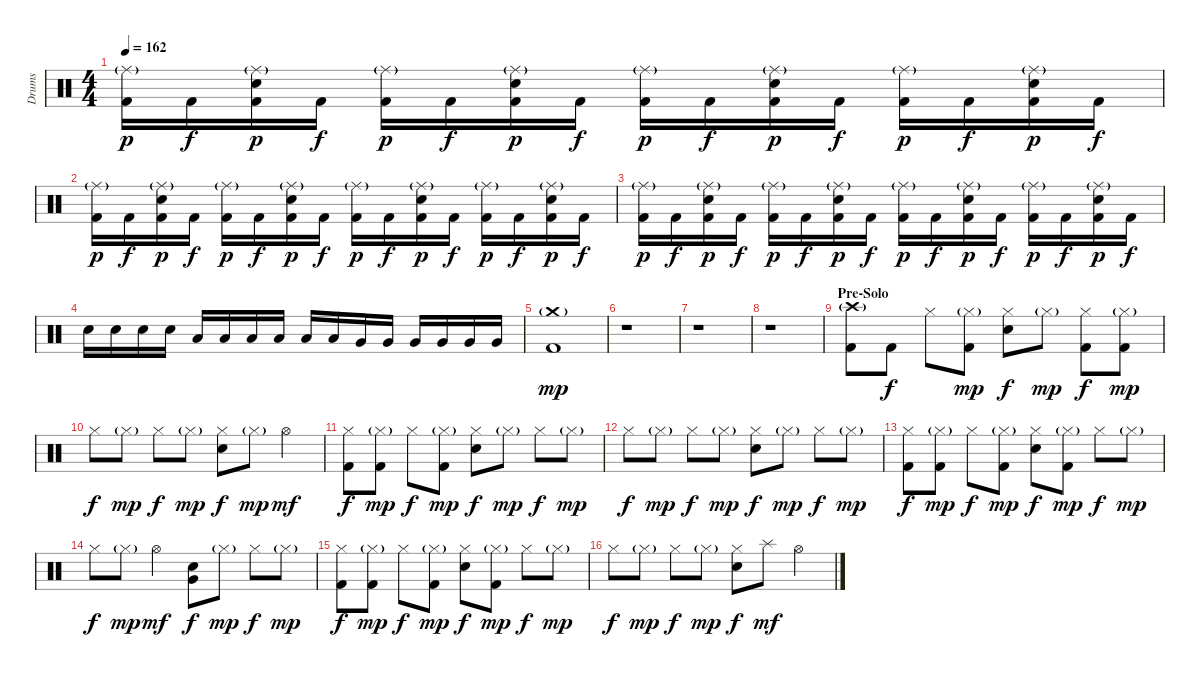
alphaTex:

\track ("Drums" "Drums") {instrument percussion}
\staff {score}
\articulation defaults
\ts (4 4)
\tempo 162
\clef neutral
\ks c
("Ride (middle)"{g} "Kick (hit) 2").16{dy p} "Kick (hit) 2".16{dy f} ("Ride (middle)"{g} "Snare (hit) 2" "Kick (hit) 2").16{dy p} "Kick (hit) 2".16{dy f} ("Ride (middle)"{g} "Kick (hit) 2").16{dy p} "Kick (hit) 2".16{dy f} ("Ride (middle)"{g} "Snare (hit) 2" "Kick (hit) 2").16{dy p} "Kick (hit) 2".16{dy f} ("Ride (middle)"{g} "Kick (hit) 2").16{dy p} "Kick (hit) 2".16{dy f} ("Ride (middle)"{g} "Snare (hit) 2" "Kick (hit) 2").16{dy p} "Kick (hit) 2".16{dy f} ("Ride (middle)"{g} "Kick (hit) 2").16{dy p} "Kick (hit) 2".16{dy f} ("Ride (middle)"{g} "Snare (hit) 2" "Kick (hit) 2").16{dy p} "Kick (hit) 2".16{dy f} |
("Ride (middle)"{g} "Kick (hit) 2").16{dy p} "Kick (hit) 2".16{dy f} ("Ride (middle)"{g} "Snare (hit) 2" "Kick (hit) 2").16{dy p} "Kick (hit) 2".16{dy f} ("Ride (middle)"{g} "Kick (hit) 2").16{dy p} "Kick (hit) 2".16{dy f} ("Ride (middle)"{g} "Snare (hit) 2" "Kick (hit) 2").16{dy p} "Kick (hit) 2".16{dy f} ("Ride (middle)"{g} "Kick (hit) 2").16{dy p} "Kick (hit) 2".16{dy f} ("Ride (middle)"{g} "Snare (hit) 2" "Kick (hit) 2").16{dy p} "Kick (hit) 2".16{dy f} ("Ride (middle)"{g} "Kick (hit) 2").16{dy p} "Kick (hit) 2".16{dy f} ("Ride (middle)"{g} "Snare (hit) 2" "Kick (hit) 2").16{dy p} "Kick (hit) 2".16{dy f} |
("Ride (middle)"{g} "Kick (hit) 2").16{dy p} "Kick (hit) 2".16{dy f} ("Ride (middle)"{g} "Snare (hit) 2" "Kick (hit) 2").16{dy p} "Kick (hit) 2".16{dy f} ("Ride (middle)"{g} "Kick (hit) 2").16{dy p} "Kick (hit) 2".16{dy f} ("Ride (middle)"{g} "Snare (hit) 2" "Kick (hit) 2").16{dy p} "Kick (hit) 2".16{dy f} ("Ride (middle)"{g} "Kick (hit) 2").16{dy p} "Kick (hit) 2".16{dy f} ("Ride (middle)"{g} "Snare (hit) 2" "Kick (hit) 2").16{dy p} "Kick (hit) 2".16{dy f} ("Ride (middle)"{g} "Kick (hit) 2").16{dy p} "Kick (hit) 2".16{dy f} ("Ride (middle)"{g} "Snare (hit) 2" "Kick (hit) 2").16{dy p} "Kick (hit) 2".16{dy f} |
"Snare (hit) 2".16 "Snare (hit) 2".16 "Snare (hit) 2".16 "Snare (hit) 2".16 "Low Tom (hit)".16 "Low Tom (hit)".16 "Low Tom (hit)".16 "Low Tom (hit)".16 "Low Tom (hit)".16 "Low Tom (hit)".16 "Very Low Tom (hit)".16 "Very Low Tom (hit)".16 "Very Low Tom (hit)".16 "Very Low Tom (hit)".16 "Very Low Tom (hit)".16 "Very Low Tom (hit)".16 |
("Crash medium (hit)"{g} "Kick (hit) 2").1{dy mp} |
r.1 |
r.1 |
r.1 |
\section ("" "Pre-Solo")
("Crash high (hit)"{g} "Kick (hit) 2").8 "Kick (hit) 2".8{dy f} "Hi-Hat (closed)".8 ("Hi-Hat (closed)"{g} "Kick (hit) 2").8{dy mp} ("Hi-Hat (closed)" "Snare (hit) 2").8{dy f} "Hi-Hat (closed)"{g}.8{dy mp} ("Hi-Hat (closed)" "Kick (hit) 2").8{dy f} ("Hi-Hat (closed)"{g} "Kick (hit) 2").8{dy mp} |
"Hi-Hat (closed)".8{dy f} "Hi-Hat (closed)"{g}.8{dy mp} "Hi-Hat (closed)".8{dy f} "Hi-Hat (closed)"{g}.8{dy mp} ("Hi-Hat (closed)" "Snare (hit) 2").8{dy f} "Hi-Hat (closed)"{g}.8{dy mp} "Hi-Hat (open)".4{dy mf} |
("Hi-Hat (closed)" "Kick (hit) 2").8{dy f} ("Hi-Hat (closed)"{g} "Kick (hit) 2").8{dy mp} "Hi-Hat (closed)".8{dy f} ("Hi-Hat (closed)"{g} "Kick (hit) 2").8{dy mp} ("Hi-Hat (closed)" "Snare (hit) 2").8{dy f} "Hi-Hat (closed)"{g}.8{dy mp} "Hi-Hat (closed)".8{dy f} "Hi-Hat (closed)"{g}.8{dy mp} |
"Hi-Hat (closed)".8{dy f} "Hi-Hat (closed)"{g}.8{dy mp} "Hi-Hat (closed)".8{dy f} "Hi-Hat (closed)"{g}.8{dy mp} ("Hi-Hat (closed)" "Snare (hit) 2").8{dy f} "Hi-Hat (closed)"{g}.8{dy mp} "Hi-Hat (closed)".8{dy f} "Hi-Hat (closed)"{g}.8{dy mp} |
("Hi-Hat (closed)" "Kick (hit) 2").8{dy f} ("Hi-Hat (closed)"{g} "Kick (hit) 2").8{dy mp} "Hi-Hat (closed)".8{dy f} ("Hi-Hat (closed)"{g} "Kick (hit) 2").8{dy mp} ("Hi-Hat (closed)" "Snare (hit) 2").8{dy f} ("Hi-Hat (closed)"{g} "Kick (hit) 2").8{dy mp} "Hi-Hat (closed)".8{dy f} "Hi-Hat (closed)"{g}.8{dy mp} |
"Hi-Hat (closed)".8{dy f} "Hi-Hat (closed)"{g}.8{dy mp} "Hi-Hat (open)".4{dy mf} ("Very Low Tom (hit)" "Snare (hit) 2").8{dy f} "Hi-Hat (closed)"{g}.8{dy mp} "Hi-Hat (closed)".8{dy f} "Hi-Hat (closed)"{g}.8{dy mp} |
("Hi-Hat (closed)" "Kick (hit) 2").8{dy f} ("Hi-Hat (closed)"{g} "Kick (hit) 2").8{dy mp} "Hi-Hat (closed)".8{dy f} ("Hi-Hat (closed)"{g} "Kick (hit) 2").8{dy mp} ("Hi-Hat (closed)" "Snare (hit) 2").8{dy f} ("Hi-Hat (closed)"{g} "Kick (hit) 2").8{dy mp} "Hi-Hat (closed)".8{dy f} "Hi-Hat (closed)"{g}.8{dy mp} |
"Hi-Hat (closed)".8{dy f} "Hi-Hat (closed)"{g}.8{dy mp} "Hi-Hat (closed)".8{dy f} "Hi-Hat (closed)"{g}.8{dy mp} ("Hi-Hat (closed)" "Snare (hit) 2").8{dy f} "Splash (hit)".8{dy mf} "Hi-Hat (open)".4
